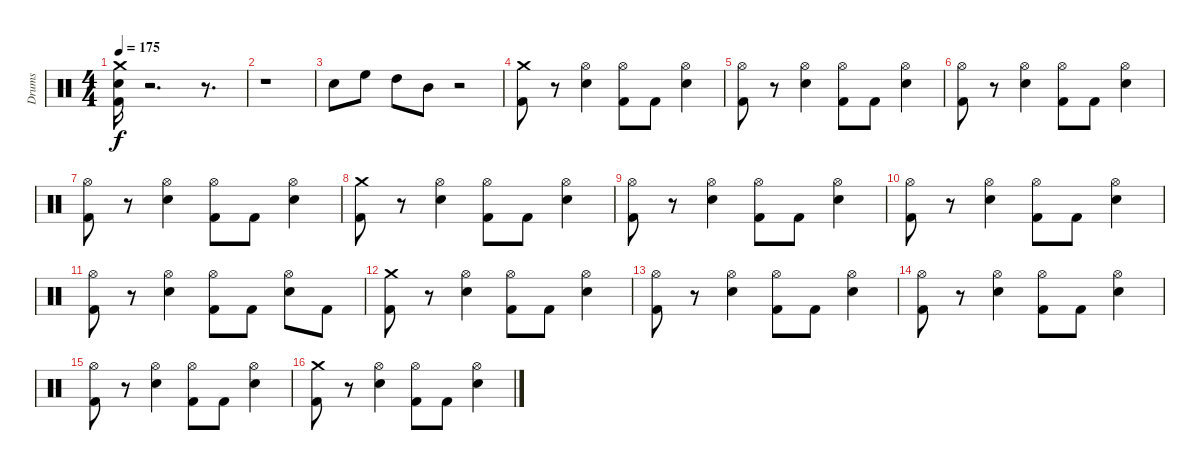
\track ("Drums" "Drums") {instrument percussion}
\staff {score}
\articulation defaults
\ts (4 4)
\tempo 175
\clef neutral
\ks c
("Crash medium (hit)" "Kick (hit) 2" "Electric Snare (hit)").16{dy f} r.2{d} r.8{d} |
r.1 |
"Electric Snare (hit)".8 "High Floor Tom (hit)".8 "High Tom (hit)".8 "Mid Tom (hit)".8 r.2 |
("Kick (hit) 2" "Crash medium (hit)").8 r.8 ("Hi-Hat (open)" "Electric Snare (hit)").4 ("Hi-Hat (open)" "Kick (hit) 2").8 "Kick (hit) 2".8 ("Hi-Hat (open)" "Electric Snare (hit)").4 |
("Hi-Hat (open)" "Kick (hit) 2").8 r.8 ("Hi-Hat (open)" "Electric Snare (hit)").4 ("Hi-Hat (open)" "Kick (hit) 2").8 "Kick (hit) 2".8 ("Hi-Hat (open)" "Electric Snare (hit)").4 |
("Hi-Hat (open)" "Kick (hit) 2").8 r.8 ("Hi-Hat (open)" "Electric Snare (hit)").4 ("Hi-Hat (open)" "Kick (hit) 2").8 "Kick (hit) 2".8 ("Hi-Hat (open)" "Electric Snare (hit)").4 |
("Hi-Hat (open)" "Kick (hit) 2").8 r.8 ("Hi-Hat (open)" "Electric Snare (hit)").4 ("Hi-Hat (open)" "Kick (hit) 2").8 "Kick (hit) 2".8 ("Hi-Hat (open)" "Electric Snare (hit)").4 |
("Kick (hit) 2" "Crash medium (hit)").8 r.8 ("Hi-Hat (open)" "Electric Snare (hit)").4 ("Hi-Hat (open)" "Kick (hit) 2").8 "Kick (hit) 2".8 ("Hi-Hat (open)" "Electric Snare (hit)").4 |
("Hi-Hat (open)" "Kick (hit) 2").8 r.8 ("Hi-Hat (open)" "Electric Snare (hit)").4 ("Hi-Hat (open)" "Kick (hit) 2").8 "Kick (hit) 2".8 ("Hi-Hat (open)" "Electric Snare (hit)").4 |
("Hi-Hat (open)" "Kick (hit) 2").8 r.8 ("Hi-Hat (open)" "Electric Snare (hit)").4 ("Hi-Hat (open)" "Kick (hit) 2").8 "Kick (hit) 2".8 ("Hi-Hat (open)" "Electric Snare (hit)").4 |
("Hi-Hat (open)" "Kick (hit) 2").8 r.8 ("Hi-Hat (open)" "Electric Snare (hit)").4 ("Hi-Hat (open)" "Kick (hit) 2").8 "Kick (hit) 2".8 ("Hi-Hat (open)" "Electric Snare (hit)").8 "Kick (hit) 2".8 |
("Kick (hit) 2" "Crash medium (hit)").8 r.8 ("Hi-Hat (open)" "Electric Snare (hit)").4 ("Hi-Hat (open)" "Kick (hit) 2").8 "Kick (hit) 2".8 ("Hi-Hat (open)" "Electric Snare (hit)").4 |
("Hi-Hat (open)" "Kick (hit) 2").8 r.8 ("Hi-Hat (open)" "Electric Snare (hit)").4 ("Hi-Hat (open)" "Kick (hit) 2").8 "Kick (hit) 2".8 ("Hi-Hat (open)" "Electric Snare (hit)").4 |
("Hi-Hat (open)" "Kick (hit) 2").8 r.8 ("Hi-Hat (open)" "Electric Snare (hit)").4 ("Hi-Hat (open)" "Kick (hit) 2").8 "Kick (hit) 2".8 ("Hi-Hat (open)" "Electric Snare (hit)").4 |
("Hi-Hat (open)" "Kick (hit) 2").8 r.8 ("Hi-Hat (open)" "Electric Snare (hit)").4 ("Hi-Hat (open)" "Kick (hit) 2").8 "Kick (hit) 2".8 ("Hi-Hat (open)" "Electric Snare (hit)").4 |
("Kick (hit) 2" "Crash medium (hit)").8 r.8 ("Hi-Hat (open)" "Electric Snare (hit)").4 ("Hi-Hat (open)" "Kick (hit) 2").8 "Kick (hit) 2".8 ("Hi-Hat (open)" "Electric Snare (hit)").4
